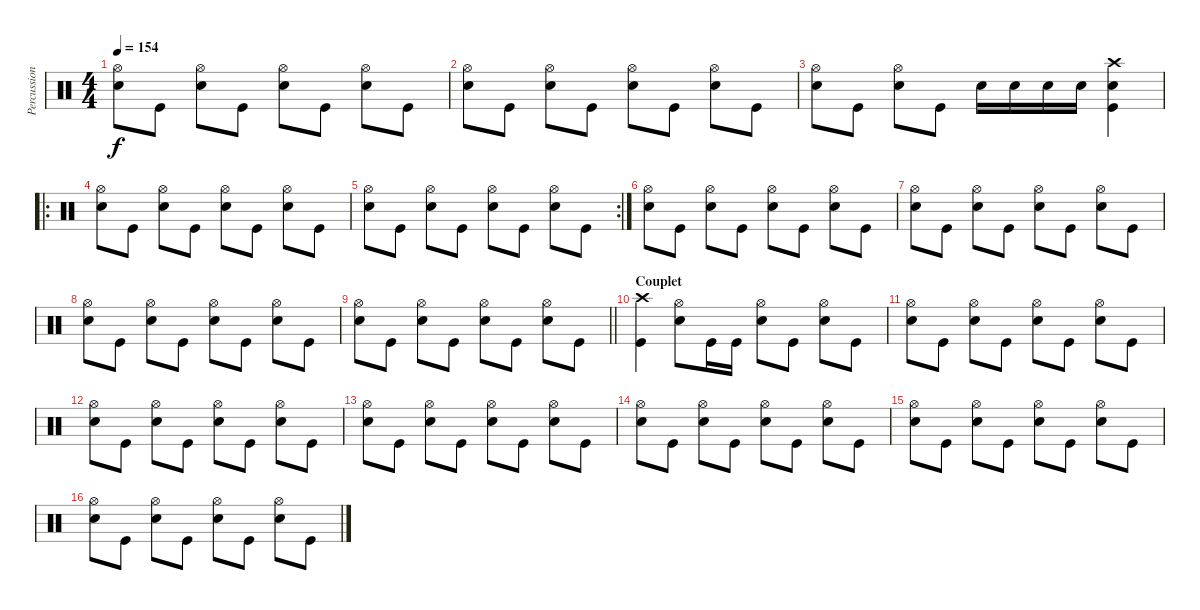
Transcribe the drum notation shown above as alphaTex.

\track ("Percussions" "Percussion") {instrument percussion}
\staff {score}
\articulation defaults
\ts (4 4)
\tempo 154
\clef neutral
\ks c
("Snare (hit) 2" "Hi-Hat (open)").8{dy f} "Kick (hit)".8 ("Snare (hit) 2" "Hi-Hat (open)").8 "Kick (hit)".8 ("Snare (hit) 2" "Hi-Hat (open)").8 "Kick (hit)".8 ("Snare (hit) 2" "Hi-Hat (open)").8 "Kick (hit)".8 |
("Snare (hit) 2" "Hi-Hat (open)").8 "Kick (hit)".8 ("Snare (hit) 2" "Hi-Hat (open)").8 "Kick (hit)".8 ("Snare (hit) 2" "Hi-Hat (open)").8 "Kick (hit)".8 ("Snare (hit) 2" "Hi-Hat (open)").8 "Kick (hit)".8 |
("Snare (hit) 2" "Hi-Hat (open)").8 "Kick (hit)".8 ("Snare (hit) 2" "Hi-Hat (open)").8 "Kick (hit)".8 "Snare (hit) 2".16 "Snare (hit) 2".16 "Snare (hit) 2".16 "Snare (hit) 2".16 ("Kick (hit)" "Snare (hit) 2" "Crash high (hit)").4 |
\ro
("Snare (hit) 2" "Hi-Hat (open)").8 "Kick (hit)".8 ("Snare (hit) 2" "Hi-Hat (open)").8 "Kick (hit)".8 ("Snare (hit) 2" "Hi-Hat (open)").8 "Kick (hit)".8 ("Snare (hit) 2" "Hi-Hat (open)").8 "Kick (hit)".8 |
\rc 2
("Snare (hit) 2" "Hi-Hat (open)").8 "Kick (hit)".8 ("Snare (hit) 2" "Hi-Hat (open)").8 "Kick (hit)".8 ("Snare (hit) 2" "Hi-Hat (open)").8 "Kick (hit)".8 ("Snare (hit) 2" "Hi-Hat (open)").8 "Kick (hit)".8 |
("Snare (hit) 2" "Hi-Hat (open)").8 "Kick (hit)".8 ("Snare (hit) 2" "Hi-Hat (open)").8 "Kick (hit)".8 ("Snare (hit) 2" "Hi-Hat (open)").8 "Kick (hit)".8 ("Snare (hit) 2" "Hi-Hat (open)").8 "Kick (hit)".8 |
("Snare (hit) 2" "Hi-Hat (open)").8 "Kick (hit)".8 ("Snare (hit) 2" "Hi-Hat (open)").8 "Kick (hit)".8 ("Snare (hit) 2" "Hi-Hat (open)").8 "Kick (hit)".8 ("Snare (hit) 2" "Hi-Hat (open)").8 "Kick (hit)".8 |
("Snare (hit) 2" "Hi-Hat (open)").8 "Kick (hit)".8 ("Snare (hit) 2" "Hi-Hat (open)").8 "Kick (hit)".8 ("Snare (hit) 2" "Hi-Hat (open)").8 "Kick (hit)".8 ("Snare (hit) 2" "Hi-Hat (open)").8 "Kick (hit)".8 |
\barLineRight lightlight
("Snare (hit) 2" "Hi-Hat (open)").8 "Kick (hit)".8 ("Snare (hit) 2" "Hi-Hat (open)").8 "Kick (hit)".8 ("Snare (hit) 2" "Hi-Hat (open)").8 "Kick (hit)".8 ("Snare (hit) 2" "Hi-Hat (open)").8 "Kick (hit)".8 |
\section ("" "Couplet")
("Crash high (hit)" "Kick (hit)").4 ("Snare (hit) 2" "Hi-Hat (open)").8 "Kick (hit)".16 "Kick (hit)".16 ("Snare (hit) 2" "Hi-Hat (open)").8 "Kick (hit)".8 ("Snare (hit) 2" "Hi-Hat (open)").8 "Kick (hit)".8 |
("Snare (hit) 2" "Hi-Hat (open)").8 "Kick (hit)".8 ("Snare (hit) 2" "Hi-Hat (open)").8 "Kick (hit)".8 ("Snare (hit) 2" "Hi-Hat (open)").8 "Kick (hit)".8 ("Snare (hit) 2" "Hi-Hat (open)").8 "Kick (hit)".8 |
("Snare (hit) 2" "Hi-Hat (open)").8 "Kick (hit)".8 ("Snare (hit) 2" "Hi-Hat (open)").8 "Kick (hit)".8 ("Snare (hit) 2" "Hi-Hat (open)").8 "Kick (hit)".8 ("Snare (hit) 2" "Hi-Hat (open)").8 "Kick (hit)".8 |
("Snare (hit) 2" "Hi-Hat (open)").8 "Kick (hit)".8 ("Snare (hit) 2" "Hi-Hat (open)").8 "Kick (hit)".8 ("Snare (hit) 2" "Hi-Hat (open)").8 "Kick (hit)".8 ("Snare (hit) 2" "Hi-Hat (open)").8 "Kick (hit)".8 |
("Snare (hit) 2" "Hi-Hat (open)").8 "Kick (hit)".8 ("Snare (hit) 2" "Hi-Hat (open)").8 "Kick (hit)".8 ("Snare (hit) 2" "Hi-Hat (open)").8 "Kick (hit)".8 ("Snare (hit) 2" "Hi-Hat (open)").8 "Kick (hit)".8 |
("Snare (hit) 2" "Hi-Hat (open)").8 "Kick (hit)".8 ("Snare (hit) 2" "Hi-Hat (open)").8 "Kick (hit)".8 ("Snare (hit) 2" "Hi-Hat (open)").8 "Kick (hit)".8 ("Snare (hit) 2" "Hi-Hat (open)").8 "Kick (hit)".8 |
("Snare (hit) 2" "Hi-Hat (open)").8 "Kick (hit)".8 ("Snare (hit) 2" "Hi-Hat (open)").8 "Kick (hit)".8 ("Snare (hit) 2" "Hi-Hat (open)").8 "Kick (hit)".8 ("Snare (hit) 2" "Hi-Hat (open)").8 "Kick (hit)".8
